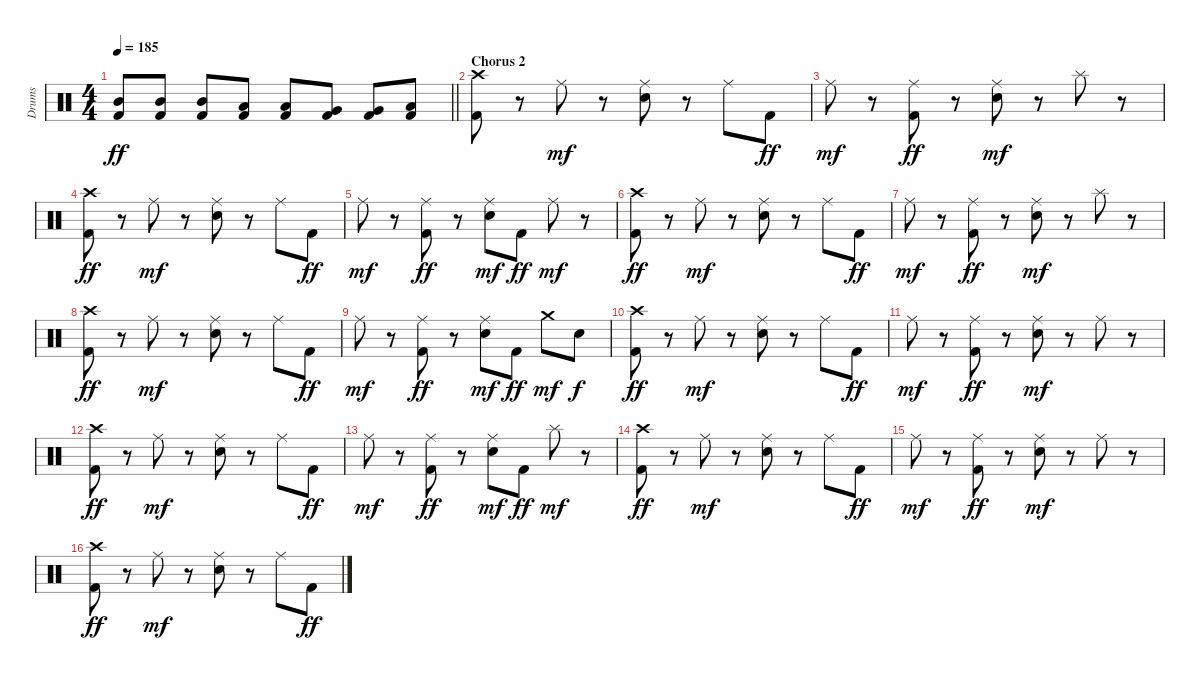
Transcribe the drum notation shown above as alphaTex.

\track ("Drums" "Drums") {instrument percussion}
\staff {score}
\articulation defaults
\ts (4 4)
\tempo 185
\clef neutral
\barLineRight lightlight
\ks c
("Mid Tom (hit)" "Kick (hit) 2").8{dy ff} ("Mid Tom (hit)" "Kick (hit) 2").8 ("Mid Tom (hit)" "Kick (hit) 2").8 ("Low Tom (hit)" "Kick (hit) 2").8 ("Low Tom (hit)" "Kick (hit) 2").8 ("Very Low Tom (hit)" "Kick (hit) 2").8 ("Very Low Tom (hit)" "Kick (hit) 2").8 ("Low Floor Tom (hit)" "Kick (hit) 2").8 |
\section ("" "Chorus 2")
("Crash high (hit)" "Kick (hit) 2").8 r.8 "Ride (middle)".8{dy mf} r.8 ("Ride (middle)" "Electric Snare (hit)").8 r.8 "Ride (middle)".8 "Kick (hit) 2".8{dy ff} |
"Ride (middle)".8{dy mf} r.8 ("Ride (middle)" "Kick (hit) 2").8{dy ff} r.8 ("Ride (middle)" "Electric Snare (hit)").8{dy mf} r.8 "Splash (hit)".8 r.8 |
("Crash high (hit)" "Kick (hit) 2").8{dy ff} r.8 "Ride (middle)".8{dy mf} r.8 ("Ride (middle)" "Electric Snare (hit)").8 r.8 "Ride (middle)".8 "Kick (hit) 2".8{dy ff} |
"Ride (middle)".8{dy mf} r.8 ("Ride (middle)" "Kick (hit) 2").8{dy ff} r.8 ("Ride (middle)" "Electric Snare (hit)").8{dy mf} "Kick (hit) 2".8{dy ff} "Ride (middle)".8{dy mf} r.8 |
("Crash high (hit)" "Kick (hit) 2").8{dy ff} r.8 "Ride (middle)".8{dy mf} r.8 ("Ride (middle)" "Electric Snare (hit)").8 r.8 "Ride (middle)".8 "Kick (hit) 2".8{dy ff} |
"Ride (middle)".8{dy mf} r.8 ("Ride (middle)" "Kick (hit) 2").8{dy ff} r.8 ("Ride (middle)" "Electric Snare (hit)").8{dy mf} r.8 "Splash (hit)".8 r.8 |
("Crash high (hit)" "Kick (hit) 2").8{dy ff} r.8 "Ride (middle)".8{dy mf} r.8 ("Ride (middle)" "Electric Snare (hit)").8 r.8 "Ride (middle)".8 "Kick (hit) 2".8{dy ff} |
"Ride (middle)".8{dy mf} r.8 ("Ride (middle)" "Kick (hit) 2").8{dy ff} r.8 ("Ride (middle)" "Electric Snare (hit)").8{dy mf} "Kick (hit) 2".8{dy ff} "Crash medium (hit)".8{dy mf} "Electric Snare (hit)".8{dy f} |
("Crash high (hit)" "Kick (hit) 2").8{dy ff} r.8 "Ride (middle)".8{dy mf} r.8 ("Ride (middle)" "Electric Snare (hit)").8 r.8 "Ride (middle)".8 "Kick (hit) 2".8{dy ff} |
"Ride (middle)".8{dy mf} r.8 ("Ride (middle)" "Kick (hit) 2").8{dy ff} r.8 ("Ride (middle)" "Electric Snare (hit)").8{dy mf} r.8 "Ride (middle)".8 r.8 |
("Crash high (hit)" "Kick (hit) 2").8{dy ff} r.8 "Ride (middle)".8{dy mf} r.8 ("Ride (middle)" "Electric Snare (hit)").8 r.8 "Ride (middle)".8 "Kick (hit) 2".8{dy ff} |
"Ride (middle)".8{dy mf} r.8 ("Ride (middle)" "Kick (hit) 2").8{dy ff} r.8 ("Ride (middle)" "Electric Snare (hit)").8{dy mf} "Kick (hit) 2".8{dy ff} "Splash (hit)".8{dy mf} r.8 |
("Crash high (hit)" "Kick (hit) 2").8{dy ff} r.8 "Ride (middle)".8{dy mf} r.8 ("Ride (middle)" "Electric Snare (hit)").8 r.8 "Ride (middle)".8 "Kick (hit) 2".8{dy ff} |
"Ride (middle)".8{dy mf} r.8 ("Ride (middle)" "Kick (hit) 2").8{dy ff} r.8 ("Ride (middle)" "Electric Snare (hit)").8{dy mf} r.8 "Ride (middle)".8 r.8 |
("Crash high (hit)" "Kick (hit) 2").8{dy ff} r.8 "Ride (middle)".8{dy mf} r.8 ("Ride (middle)" "Electric Snare (hit)").8 r.8 "Ride (middle)".8 "Kick (hit) 2".8{dy ff}
